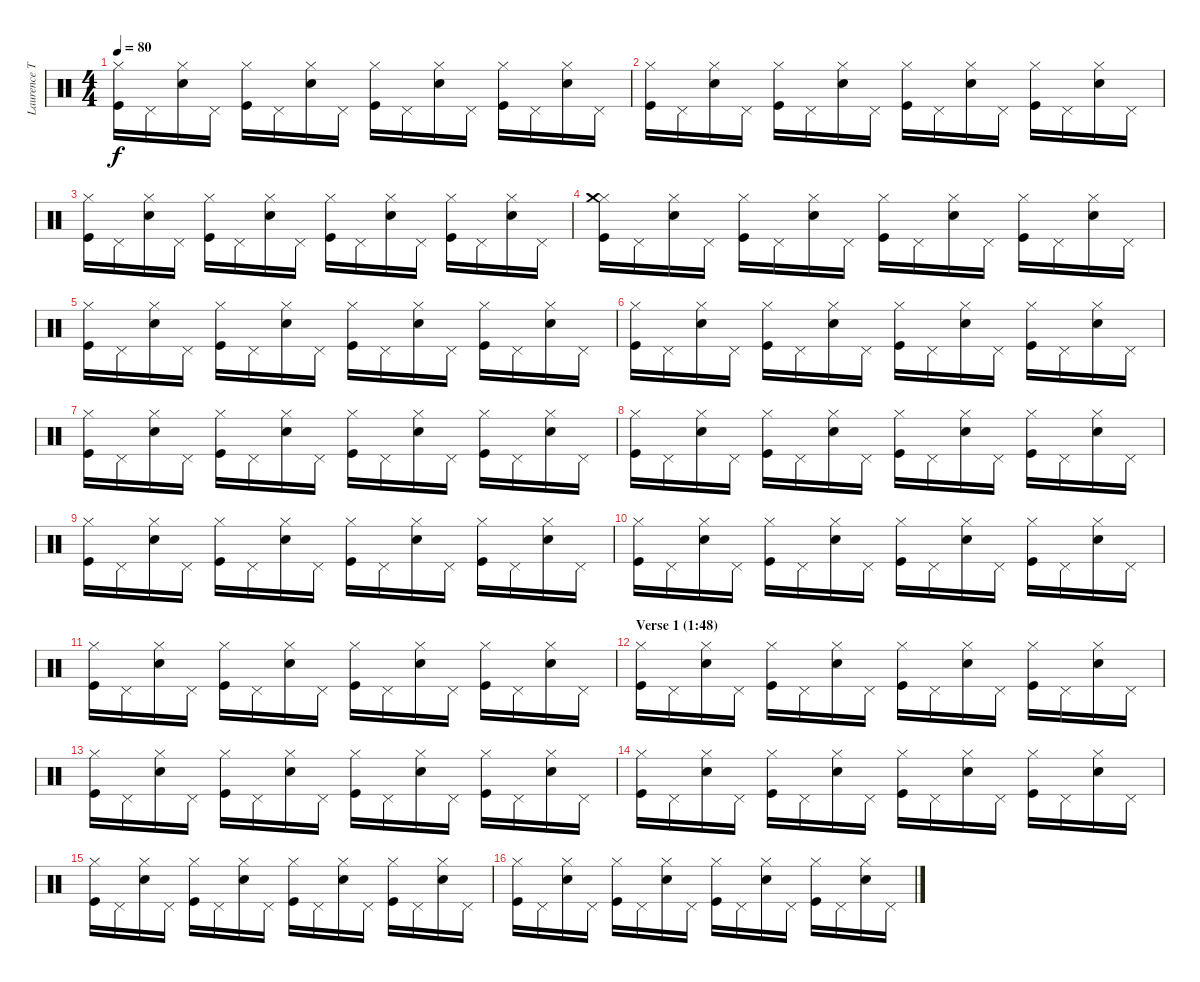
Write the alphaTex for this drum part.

\track ("Laurence Tolhurst (drums)" "Laurence T") {instrument percussion}
\staff {score}
\articulation defaults
\ts (4 4)
\tempo 80
\clef neutral
\ks c
("Kick (hit)" "Hi-Hat (closed)").16{dy f} "Pedal Hi-Hat (hit)".16 ("Snare (hit) 2" "Hi-Hat (closed)").16 "Pedal Hi-Hat (hit)".16 ("Kick (hit)" "Hi-Hat (closed)").16 "Pedal Hi-Hat (hit)".16 ("Snare (hit) 2" "Hi-Hat (closed)").16 "Pedal Hi-Hat (hit)".16 ("Kick (hit)" "Hi-Hat (closed)").16 "Pedal Hi-Hat (hit)".16 ("Snare (hit) 2" "Hi-Hat (closed)").16 "Pedal Hi-Hat (hit)".16 ("Kick (hit)" "Hi-Hat (closed)").16 "Pedal Hi-Hat (hit)".16 ("Snare (hit) 2" "Hi-Hat (closed)").16 "Pedal Hi-Hat (hit)".16 |
("Kick (hit)" "Hi-Hat (closed)").16 "Pedal Hi-Hat (hit)".16 ("Snare (hit) 2" "Hi-Hat (closed)").16 "Pedal Hi-Hat (hit)".16 ("Kick (hit)" "Hi-Hat (closed)").16 "Pedal Hi-Hat (hit)".16 ("Snare (hit) 2" "Hi-Hat (closed)").16 "Pedal Hi-Hat (hit)".16 ("Kick (hit)" "Hi-Hat (closed)").16 "Pedal Hi-Hat (hit)".16 ("Snare (hit) 2" "Hi-Hat (closed)").16 "Pedal Hi-Hat (hit)".16 ("Kick (hit)" "Hi-Hat (closed)").16 "Pedal Hi-Hat (hit)".16 ("Snare (hit) 2" "Hi-Hat (closed)").16 "Pedal Hi-Hat (hit)".16 |
("Kick (hit)" "Hi-Hat (closed)").16 "Pedal Hi-Hat (hit)".16 ("Snare (hit) 2" "Hi-Hat (closed)").16 "Pedal Hi-Hat (hit)".16 ("Kick (hit)" "Hi-Hat (closed)").16 "Pedal Hi-Hat (hit)".16 ("Snare (hit) 2" "Hi-Hat (closed)").16 "Pedal Hi-Hat (hit)".16 ("Kick (hit)" "Hi-Hat (closed)").16 "Pedal Hi-Hat (hit)".16 ("Snare (hit) 2" "Hi-Hat (closed)").16 "Pedal Hi-Hat (hit)".16 ("Kick (hit)" "Hi-Hat (closed)").16 "Pedal Hi-Hat (hit)".16 ("Snare (hit) 2" "Hi-Hat (closed)").16 "Pedal Hi-Hat (hit)".16 |
("Kick (hit)" "Hi-Hat (closed)" "Crash medium (hit)").16 "Pedal Hi-Hat (hit)".16 ("Snare (hit) 2" "Hi-Hat (closed)").16 "Pedal Hi-Hat (hit)".16 ("Kick (hit)" "Hi-Hat (closed)").16 "Pedal Hi-Hat (hit)".16 ("Snare (hit) 2" "Hi-Hat (closed)").16 "Pedal Hi-Hat (hit)".16 ("Kick (hit)" "Hi-Hat (closed)").16 "Pedal Hi-Hat (hit)".16 ("Snare (hit) 2" "Hi-Hat (closed)").16 "Pedal Hi-Hat (hit)".16 ("Kick (hit)" "Hi-Hat (closed)").16 "Pedal Hi-Hat (hit)".16 ("Snare (hit) 2" "Hi-Hat (closed)").16 "Pedal Hi-Hat (hit)".16 |
("Kick (hit)" "Hi-Hat (closed)").16 "Pedal Hi-Hat (hit)".16 ("Snare (hit) 2" "Hi-Hat (closed)").16 "Pedal Hi-Hat (hit)".16 ("Kick (hit)" "Hi-Hat (closed)").16 "Pedal Hi-Hat (hit)".16 ("Snare (hit) 2" "Hi-Hat (closed)").16 "Pedal Hi-Hat (hit)".16 ("Kick (hit)" "Hi-Hat (closed)").16 "Pedal Hi-Hat (hit)".16 ("Snare (hit) 2" "Hi-Hat (closed)").16 "Pedal Hi-Hat (hit)".16 ("Kick (hit)" "Hi-Hat (closed)").16 "Pedal Hi-Hat (hit)".16 ("Snare (hit) 2" "Hi-Hat (closed)").16 "Pedal Hi-Hat (hit)".16 |
("Kick (hit)" "Hi-Hat (closed)").16 "Pedal Hi-Hat (hit)".16 ("Snare (hit) 2" "Hi-Hat (closed)").16 "Pedal Hi-Hat (hit)".16 ("Kick (hit)" "Hi-Hat (closed)").16 "Pedal Hi-Hat (hit)".16 ("Snare (hit) 2" "Hi-Hat (closed)").16 "Pedal Hi-Hat (hit)".16 ("Kick (hit)" "Hi-Hat (closed)").16 "Pedal Hi-Hat (hit)".16 ("Snare (hit) 2" "Hi-Hat (closed)").16 "Pedal Hi-Hat (hit)".16 ("Kick (hit)" "Hi-Hat (closed)").16 "Pedal Hi-Hat (hit)".16 ("Snare (hit) 2" "Hi-Hat (closed)").16 "Pedal Hi-Hat (hit)".16 |
("Kick (hit)" "Hi-Hat (closed)").16 "Pedal Hi-Hat (hit)".16 ("Snare (hit) 2" "Hi-Hat (closed)").16 "Pedal Hi-Hat (hit)".16 ("Kick (hit)" "Hi-Hat (closed)").16 "Pedal Hi-Hat (hit)".16 ("Snare (hit) 2" "Hi-Hat (closed)").16 "Pedal Hi-Hat (hit)".16 ("Kick (hit)" "Hi-Hat (closed)").16 "Pedal Hi-Hat (hit)".16 ("Snare (hit) 2" "Hi-Hat (closed)").16 "Pedal Hi-Hat (hit)".16 ("Kick (hit)" "Hi-Hat (closed)").16 "Pedal Hi-Hat (hit)".16 ("Snare (hit) 2" "Hi-Hat (closed)").16 "Pedal Hi-Hat (hit)".16 |
("Kick (hit)" "Hi-Hat (closed)").16 "Pedal Hi-Hat (hit)".16 ("Snare (hit) 2" "Hi-Hat (closed)").16 "Pedal Hi-Hat (hit)".16 ("Kick (hit)" "Hi-Hat (closed)").16 "Pedal Hi-Hat (hit)".16 ("Snare (hit) 2" "Hi-Hat (closed)").16 "Pedal Hi-Hat (hit)".16 ("Kick (hit)" "Hi-Hat (closed)").16 "Pedal Hi-Hat (hit)".16 ("Snare (hit) 2" "Hi-Hat (closed)").16 "Pedal Hi-Hat (hit)".16 ("Kick (hit)" "Hi-Hat (closed)").16 "Pedal Hi-Hat (hit)".16 ("Snare (hit) 2" "Hi-Hat (closed)").16 "Pedal Hi-Hat (hit)".16 |
("Kick (hit)" "Hi-Hat (closed)").16 "Pedal Hi-Hat (hit)".16 ("Snare (hit) 2" "Hi-Hat (closed)").16 "Pedal Hi-Hat (hit)".16 ("Kick (hit)" "Hi-Hat (closed)").16 "Pedal Hi-Hat (hit)".16 ("Snare (hit) 2" "Hi-Hat (closed)").16 "Pedal Hi-Hat (hit)".16 ("Kick (hit)" "Hi-Hat (closed)").16 "Pedal Hi-Hat (hit)".16 ("Snare (hit) 2" "Hi-Hat (closed)").16 "Pedal Hi-Hat (hit)".16 ("Kick (hit)" "Hi-Hat (closed)").16 "Pedal Hi-Hat (hit)".16 ("Snare (hit) 2" "Hi-Hat (closed)").16 "Pedal Hi-Hat (hit)".16 |
("Kick (hit)" "Hi-Hat (closed)").16 "Pedal Hi-Hat (hit)".16 ("Snare (hit) 2" "Hi-Hat (closed)").16 "Pedal Hi-Hat (hit)".16 ("Kick (hit)" "Hi-Hat (closed)").16 "Pedal Hi-Hat (hit)".16 ("Snare (hit) 2" "Hi-Hat (closed)").16 "Pedal Hi-Hat (hit)".16 ("Kick (hit)" "Hi-Hat (closed)").16 "Pedal Hi-Hat (hit)".16 ("Snare (hit) 2" "Hi-Hat (closed)").16 "Pedal Hi-Hat (hit)".16 ("Kick (hit)" "Hi-Hat (closed)").16 "Pedal Hi-Hat (hit)".16 ("Snare (hit) 2" "Hi-Hat (closed)").16 "Pedal Hi-Hat (hit)".16 |
("Kick (hit)" "Hi-Hat (closed)").16 "Pedal Hi-Hat (hit)".16 ("Snare (hit) 2" "Hi-Hat (closed)").16 "Pedal Hi-Hat (hit)".16 ("Kick (hit)" "Hi-Hat (closed)").16 "Pedal Hi-Hat (hit)".16 ("Snare (hit) 2" "Hi-Hat (closed)").16 "Pedal Hi-Hat (hit)".16 ("Kick (hit)" "Hi-Hat (closed)").16 "Pedal Hi-Hat (hit)".16 ("Snare (hit) 2" "Hi-Hat (closed)").16 "Pedal Hi-Hat (hit)".16 ("Kick (hit)" "Hi-Hat (closed)").16 "Pedal Hi-Hat (hit)".16 ("Snare (hit) 2" "Hi-Hat (closed)").16 "Pedal Hi-Hat (hit)".16 |
\section ("" "Verse 1 (1:48)")
("Kick (hit)" "Hi-Hat (closed)").16 "Pedal Hi-Hat (hit)".16 ("Snare (hit) 2" "Hi-Hat (closed)").16 "Pedal Hi-Hat (hit)".16 ("Kick (hit)" "Hi-Hat (closed)").16 "Pedal Hi-Hat (hit)".16 ("Snare (hit) 2" "Hi-Hat (closed)").16 "Pedal Hi-Hat (hit)".16 ("Kick (hit)" "Hi-Hat (closed)").16 "Pedal Hi-Hat (hit)".16 ("Snare (hit) 2" "Hi-Hat (closed)").16 "Pedal Hi-Hat (hit)".16 ("Kick (hit)" "Hi-Hat (closed)").16 "Pedal Hi-Hat (hit)".16 ("Snare (hit) 2" "Hi-Hat (closed)").16 "Pedal Hi-Hat (hit)".16 |
("Kick (hit)" "Hi-Hat (closed)").16 "Pedal Hi-Hat (hit)".16 ("Snare (hit) 2" "Hi-Hat (closed)").16 "Pedal Hi-Hat (hit)".16 ("Kick (hit)" "Hi-Hat (closed)").16 "Pedal Hi-Hat (hit)".16 ("Snare (hit) 2" "Hi-Hat (closed)").16 "Pedal Hi-Hat (hit)".16 ("Kick (hit)" "Hi-Hat (closed)").16 "Pedal Hi-Hat (hit)".16 ("Snare (hit) 2" "Hi-Hat (closed)").16 "Pedal Hi-Hat (hit)".16 ("Kick (hit)" "Hi-Hat (closed)").16 "Pedal Hi-Hat (hit)".16 ("Snare (hit) 2" "Hi-Hat (closed)").16 "Pedal Hi-Hat (hit)".16 |
("Kick (hit)" "Hi-Hat (closed)").16 "Pedal Hi-Hat (hit)".16 ("Snare (hit) 2" "Hi-Hat (closed)").16 "Pedal Hi-Hat (hit)".16 ("Kick (hit)" "Hi-Hat (closed)").16 "Pedal Hi-Hat (hit)".16 ("Snare (hit) 2" "Hi-Hat (closed)").16 "Pedal Hi-Hat (hit)".16 ("Kick (hit)" "Hi-Hat (closed)").16 "Pedal Hi-Hat (hit)".16 ("Snare (hit) 2" "Hi-Hat (closed)").16 "Pedal Hi-Hat (hit)".16 ("Kick (hit)" "Hi-Hat (closed)").16 "Pedal Hi-Hat (hit)".16 ("Snare (hit) 2" "Hi-Hat (closed)").16 "Pedal Hi-Hat (hit)".16 |
("Kick (hit)" "Hi-Hat (closed)").16 "Pedal Hi-Hat (hit)".16 ("Snare (hit) 2" "Hi-Hat (closed)").16 "Pedal Hi-Hat (hit)".16 ("Kick (hit)" "Hi-Hat (closed)").16 "Pedal Hi-Hat (hit)".16 ("Snare (hit) 2" "Hi-Hat (closed)").16 "Pedal Hi-Hat (hit)".16 ("Kick (hit)" "Hi-Hat (closed)").16 "Pedal Hi-Hat (hit)".16 ("Snare (hit) 2" "Hi-Hat (closed)").16 "Pedal Hi-Hat (hit)".16 ("Kick (hit)" "Hi-Hat (closed)").16 "Pedal Hi-Hat (hit)".16 ("Snare (hit) 2" "Hi-Hat (closed)").16 "Pedal Hi-Hat (hit)".16 |
("Kick (hit)" "Hi-Hat (closed)").16 "Pedal Hi-Hat (hit)".16 ("Snare (hit) 2" "Hi-Hat (closed)").16 "Pedal Hi-Hat (hit)".16 ("Kick (hit)" "Hi-Hat (closed)").16 "Pedal Hi-Hat (hit)".16 ("Snare (hit) 2" "Hi-Hat (closed)").16 "Pedal Hi-Hat (hit)".16 ("Kick (hit)" "Hi-Hat (closed)").16 "Pedal Hi-Hat (hit)".16 ("Snare (hit) 2" "Hi-Hat (closed)").16 "Pedal Hi-Hat (hit)".16 ("Kick (hit)" "Hi-Hat (closed)").16 "Pedal Hi-Hat (hit)".16 ("Snare (hit) 2" "Hi-Hat (closed)").16 "Pedal Hi-Hat (hit)".16
